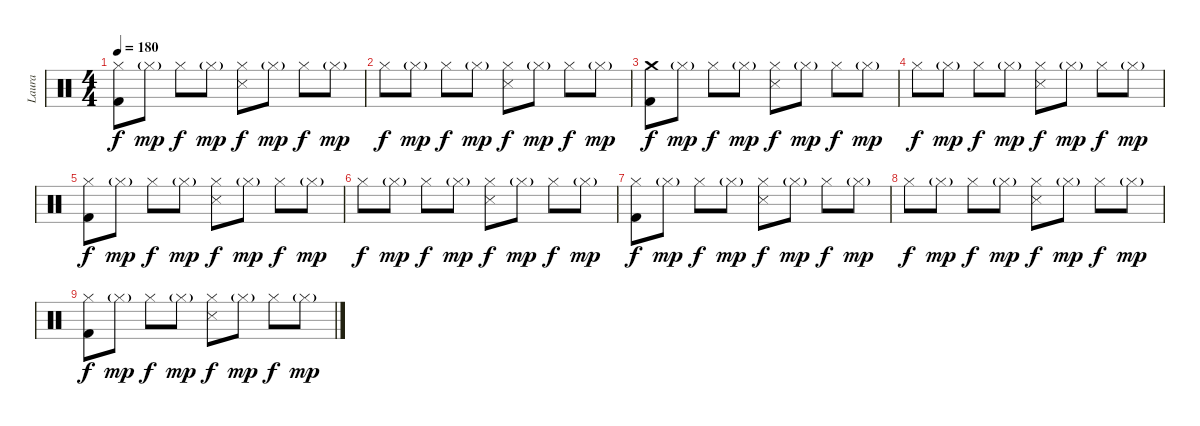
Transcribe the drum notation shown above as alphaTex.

\track ("Laura" "Laura") {instrument percussion}
\staff {score}
\articulation defaults
\ts (4 4)
\tempo 180
\clef neutral
\ks c
("Hi-Hat (closed)" "Kick (hit) 2").8{dy f} "Hi-Hat (closed)"{g}.8{dy mp} "Hi-Hat (closed)".8{dy f} "Hi-Hat (closed)"{g}.8{dy mp} ("Hi-Hat (closed)" "Snare (side stick) 3").8{dy f} "Hi-Hat (closed)"{g}.8{dy mp} "Hi-Hat (closed)".8{dy f} "Hi-Hat (closed)"{g}.8{dy mp} |
"Hi-Hat (closed)".8{dy f} "Hi-Hat (closed)"{g}.8{dy mp} "Hi-Hat (closed)".8{dy f} "Hi-Hat (closed)"{g}.8{dy mp} ("Hi-Hat (closed)" "Snare (side stick) 3").8{dy f} "Hi-Hat (closed)"{g}.8{dy mp} "Hi-Hat (closed)".8{dy f} "Hi-Hat (closed)"{g}.8{dy mp} |
("Crash medium (hit)" "Kick (hit) 2").8{dy f} "Hi-Hat (closed)"{g}.8{dy mp} "Hi-Hat (closed)".8{dy f} "Hi-Hat (closed)"{g}.8{dy mp} ("Hi-Hat (closed)" "Snare (side stick) 3").8{dy f} "Hi-Hat (closed)"{g}.8{dy mp} "Hi-Hat (closed)".8{dy f} "Hi-Hat (closed)"{g}.8{dy mp} |
"Hi-Hat (closed)".8{dy f} "Hi-Hat (closed)"{g}.8{dy mp} "Hi-Hat (closed)".8{dy f} "Hi-Hat (closed)"{g}.8{dy mp} ("Hi-Hat (closed)" "Snare (side stick) 3").8{dy f} "Hi-Hat (closed)"{g}.8{dy mp} "Hi-Hat (closed)".8{dy f} "Hi-Hat (closed)"{g}.8{dy mp} |
("Hi-Hat (closed)" "Kick (hit) 2").8{dy f} "Hi-Hat (closed)"{g}.8{dy mp} "Hi-Hat (closed)".8{dy f} "Hi-Hat (closed)"{g}.8{dy mp} ("Hi-Hat (closed)" "Snare (side stick) 3").8{dy f} "Hi-Hat (closed)"{g}.8{dy mp} "Hi-Hat (closed)".8{dy f} "Hi-Hat (closed)"{g}.8{dy mp} |
"Hi-Hat (closed)".8{dy f} "Hi-Hat (closed)"{g}.8{dy mp} "Hi-Hat (closed)".8{dy f} "Hi-Hat (closed)"{g}.8{dy mp} ("Hi-Hat (closed)" "Snare (side stick) 3").8{dy f} "Hi-Hat (closed)"{g}.8{dy mp} "Hi-Hat (closed)".8{dy f} "Hi-Hat (closed)"{g}.8{dy mp} |
("Hi-Hat (closed)" "Kick (hit) 2").8{dy f} "Hi-Hat (closed)"{g}.8{dy mp} "Hi-Hat (closed)".8{dy f} "Hi-Hat (closed)"{g}.8{dy mp} ("Hi-Hat (closed)" "Snare (side stick) 3").8{dy f} "Hi-Hat (closed)"{g}.8{dy mp} "Hi-Hat (closed)".8{dy f} "Hi-Hat (closed)"{g}.8{dy mp} |
"Hi-Hat (closed)".8{dy f} "Hi-Hat (closed)"{g}.8{dy mp} "Hi-Hat (closed)".8{dy f} "Hi-Hat (closed)"{g}.8{dy mp} ("Hi-Hat (closed)" "Snare (side stick) 3").8{dy f} "Hi-Hat (closed)"{g}.8{dy mp} "Hi-Hat (closed)".8{dy f} "Hi-Hat (closed)"{g}.8{dy mp} |
("Hi-Hat (closed)" "Kick (hit) 2").8{dy f} "Hi-Hat (closed)"{g}.8{dy mp} "Hi-Hat (closed)".8{dy f} "Hi-Hat (closed)"{g}.8{dy mp} ("Hi-Hat (closed)" "Snare (side stick) 3").8{dy f} "Hi-Hat (closed)"{g}.8{dy mp} "Hi-Hat (closed)".8{dy f} "Hi-Hat (closed)"{g}.8{dy mp}
